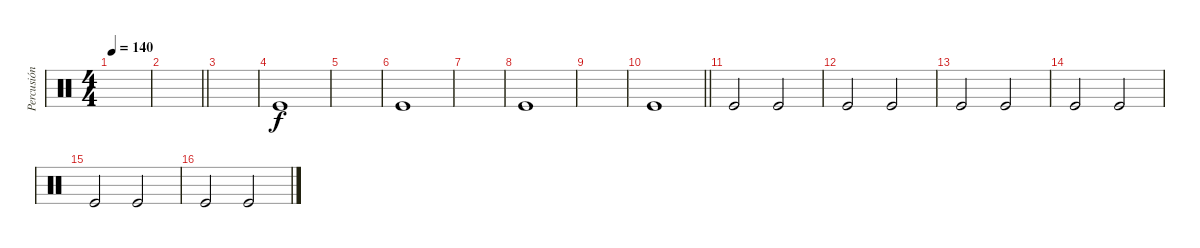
\track ("Percusión" "Percusión") {instrument percussion}
\staff {score}
\articulation defaults
\ts (4 4)
\tempo 140
\clef neutral
\ks c
|
\barLineRight lightlight
|
|
"Kick (hit)".1 |
|
"Kick (hit)".1 |
|
"Kick (hit)".1 |
|
\barLineRight lightlight "Kick (hit)".1
|
"Kick (hit)".2 "Kick (hit)".2 |
"Kick (hit)".2 "Kick (hit)".2 |
"Kick (hit)".2 "Kick (hit)".2 |
"Kick (hit)".2 "Kick (hit)".2 |
"Kick (hit)".2 "Kick (hit)".2 |
"Kick (hit)".2 "Kick (hit)".2
